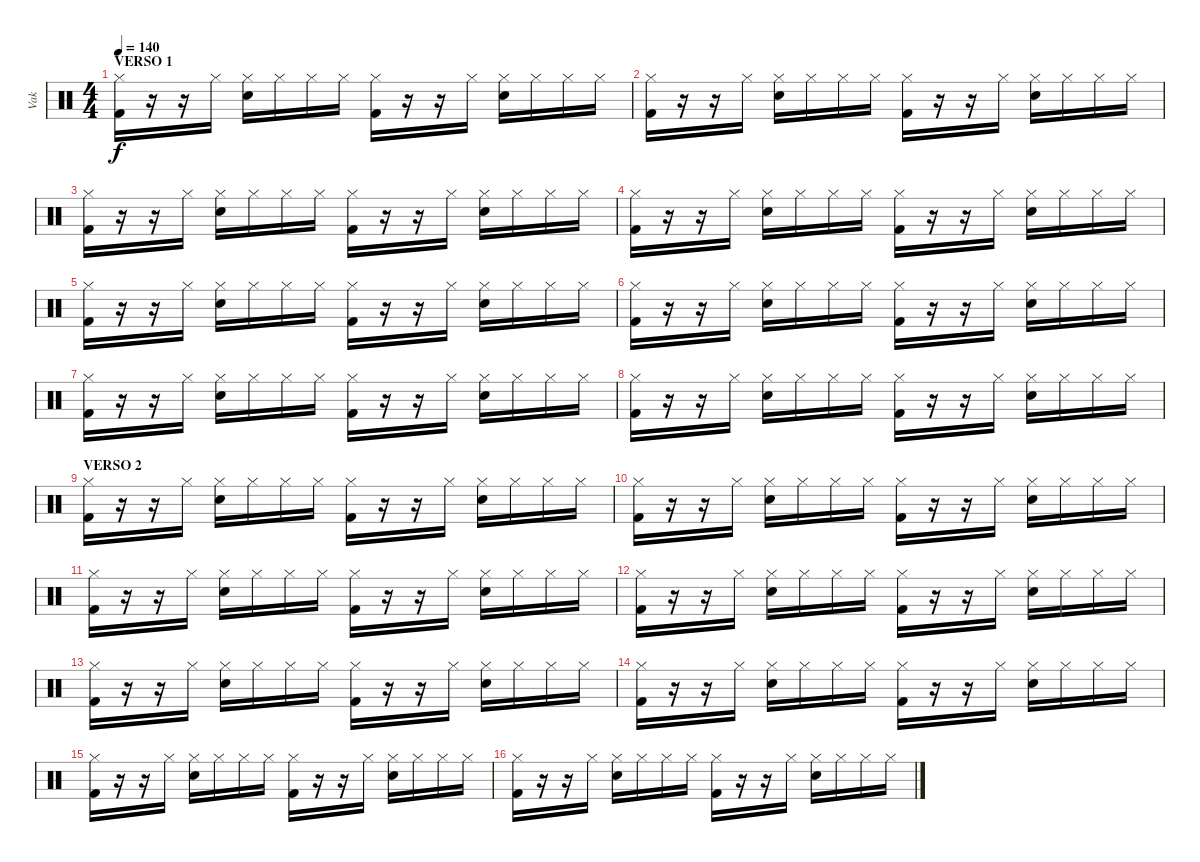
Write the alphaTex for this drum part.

\track ("Vak" "Vak") {instrument percussion}
\staff {score}
\articulation defaults
\ts (4 4)
\section ("" "VERSO 1")
\tempo 140
\clef neutral
\ks c
("Hi-Hat (closed)" "Kick (hit) 2").16{dy f} r.16 r.16 "Hi-Hat (closed)".16 ("Hi-Hat (closed)" "Snare (hit) 2").16 "Hi-Hat (closed)".16 "Hi-Hat (closed)".16 "Hi-Hat (closed)".16 ("Hi-Hat (closed)" "Kick (hit) 2").16 r.16 r.16 "Hi-Hat (closed)".16 ("Hi-Hat (closed)" "Snare (hit) 2").16 "Hi-Hat (closed)".16 "Hi-Hat (closed)".16 "Hi-Hat (closed)".16 |
("Hi-Hat (closed)" "Kick (hit) 2").16 r.16 r.16 "Hi-Hat (closed)".16 ("Hi-Hat (closed)" "Snare (hit) 2").16 "Hi-Hat (closed)".16 "Hi-Hat (closed)".16 "Hi-Hat (closed)".16 ("Hi-Hat (closed)" "Kick (hit) 2").16 r.16 r.16 "Hi-Hat (closed)".16 ("Hi-Hat (closed)" "Snare (hit) 2").16 "Hi-Hat (closed)".16 "Hi-Hat (closed)".16 "Hi-Hat (closed)".16 |
("Hi-Hat (closed)" "Kick (hit) 2").16 r.16 r.16 "Hi-Hat (closed)".16 ("Hi-Hat (closed)" "Snare (hit) 2").16 "Hi-Hat (closed)".16 "Hi-Hat (closed)".16 "Hi-Hat (closed)".16 ("Hi-Hat (closed)" "Kick (hit) 2").16 r.16 r.16 "Hi-Hat (closed)".16 ("Hi-Hat (closed)" "Snare (hit) 2").16 "Hi-Hat (closed)".16 "Hi-Hat (closed)".16 "Hi-Hat (closed)".16 |
("Hi-Hat (closed)" "Kick (hit) 2").16 r.16 r.16 "Hi-Hat (closed)".16 ("Hi-Hat (closed)" "Snare (hit) 2").16 "Hi-Hat (closed)".16 "Hi-Hat (closed)".16 "Hi-Hat (closed)".16 ("Hi-Hat (closed)" "Kick (hit) 2").16 r.16 r.16 "Hi-Hat (closed)".16 ("Hi-Hat (closed)" "Snare (hit) 2").16 "Hi-Hat (closed)".16 "Hi-Hat (closed)".16 "Hi-Hat (closed)".16 |
("Hi-Hat (closed)" "Kick (hit) 2").16 r.16 r.16 "Hi-Hat (closed)".16 ("Hi-Hat (closed)" "Snare (hit) 2").16 "Hi-Hat (closed)".16 "Hi-Hat (closed)".16 "Hi-Hat (closed)".16 ("Hi-Hat (closed)" "Kick (hit) 2").16 r.16 r.16 "Hi-Hat (closed)".16 ("Hi-Hat (closed)" "Snare (hit) 2").16 "Hi-Hat (closed)".16 "Hi-Hat (closed)".16 "Hi-Hat (closed)".16 |
("Hi-Hat (closed)" "Kick (hit) 2").16 r.16 r.16 "Hi-Hat (closed)".16 ("Hi-Hat (closed)" "Snare (hit) 2").16 "Hi-Hat (closed)".16 "Hi-Hat (closed)".16 "Hi-Hat (closed)".16 ("Hi-Hat (closed)" "Kick (hit) 2").16 r.16 r.16 "Hi-Hat (closed)".16 ("Hi-Hat (closed)" "Snare (hit) 2").16 "Hi-Hat (closed)".16 "Hi-Hat (closed)".16 "Hi-Hat (closed)".16 |
("Hi-Hat (closed)" "Kick (hit) 2").16 r.16 r.16 "Hi-Hat (closed)".16 ("Hi-Hat (closed)" "Snare (hit) 2").16 "Hi-Hat (closed)".16 "Hi-Hat (closed)".16 "Hi-Hat (closed)".16 ("Hi-Hat (closed)" "Kick (hit) 2").16 r.16 r.16 "Hi-Hat (closed)".16 ("Hi-Hat (closed)" "Snare (hit) 2").16 "Hi-Hat (closed)".16 "Hi-Hat (closed)".16 "Hi-Hat (closed)".16 |
("Hi-Hat (closed)" "Kick (hit) 2").16 r.16 r.16 "Hi-Hat (closed)".16 ("Hi-Hat (closed)" "Snare (hit) 2").16 "Hi-Hat (closed)".16 "Hi-Hat (closed)".16 "Hi-Hat (closed)".16 ("Hi-Hat (closed)" "Kick (hit) 2").16 r.16 r.16 "Hi-Hat (closed)".16 ("Hi-Hat (closed)" "Snare (hit) 2").16 "Hi-Hat (closed)".16 "Hi-Hat (closed)".16 "Hi-Hat (closed)".16 |
\section ("" "VERSO 2")
("Hi-Hat (closed)" "Kick (hit) 2").16 r.16 r.16 "Hi-Hat (closed)".16 ("Hi-Hat (closed)" "Snare (hit) 2").16 "Hi-Hat (closed)".16 "Hi-Hat (closed)".16 "Hi-Hat (closed)".16 ("Hi-Hat (closed)" "Kick (hit) 2").16 r.16 r.16 "Hi-Hat (closed)".16 ("Hi-Hat (closed)" "Snare (hit) 2").16 "Hi-Hat (closed)".16 "Hi-Hat (closed)".16 "Hi-Hat (closed)".16 |
("Hi-Hat (closed)" "Kick (hit) 2").16 r.16 r.16 "Hi-Hat (closed)".16 ("Hi-Hat (closed)" "Snare (hit) 2").16 "Hi-Hat (closed)".16 "Hi-Hat (closed)".16 "Hi-Hat (closed)".16 ("Hi-Hat (closed)" "Kick (hit) 2").16 r.16 r.16 "Hi-Hat (closed)".16 ("Hi-Hat (closed)" "Snare (hit) 2").16 "Hi-Hat (closed)".16 "Hi-Hat (closed)".16 "Hi-Hat (closed)".16 |
("Hi-Hat (closed)" "Kick (hit) 2").16 r.16 r.16 "Hi-Hat (closed)".16 ("Hi-Hat (closed)" "Snare (hit) 2").16 "Hi-Hat (closed)".16 "Hi-Hat (closed)".16 "Hi-Hat (closed)".16 ("Hi-Hat (closed)" "Kick (hit) 2").16 r.16 r.16 "Hi-Hat (closed)".16 ("Hi-Hat (closed)" "Snare (hit) 2").16 "Hi-Hat (closed)".16 "Hi-Hat (closed)".16 "Hi-Hat (closed)".16 |
("Hi-Hat (closed)" "Kick (hit) 2").16 r.16 r.16 "Hi-Hat (closed)".16 ("Hi-Hat (closed)" "Snare (hit) 2").16 "Hi-Hat (closed)".16 "Hi-Hat (closed)".16 "Hi-Hat (closed)".16 ("Hi-Hat (closed)" "Kick (hit) 2").16 r.16 r.16 "Hi-Hat (closed)".16 ("Hi-Hat (closed)" "Snare (hit) 2").16 "Hi-Hat (closed)".16 "Hi-Hat (closed)".16 "Hi-Hat (closed)".16 |
("Hi-Hat (closed)" "Kick (hit) 2").16 r.16 r.16 "Hi-Hat (closed)".16 ("Hi-Hat (closed)" "Snare (hit) 2").16 "Hi-Hat (closed)".16 "Hi-Hat (closed)".16 "Hi-Hat (closed)".16 ("Hi-Hat (closed)" "Kick (hit) 2").16 r.16 r.16 "Hi-Hat (closed)".16 ("Hi-Hat (closed)" "Snare (hit) 2").16 "Hi-Hat (closed)".16 "Hi-Hat (closed)".16 "Hi-Hat (closed)".16 |
("Hi-Hat (closed)" "Kick (hit) 2").16 r.16 r.16 "Hi-Hat (closed)".16 ("Hi-Hat (closed)" "Snare (hit) 2").16 "Hi-Hat (closed)".16 "Hi-Hat (closed)".16 "Hi-Hat (closed)".16 ("Hi-Hat (closed)" "Kick (hit) 2").16 r.16 r.16 "Hi-Hat (closed)".16 ("Hi-Hat (closed)" "Snare (hit) 2").16 "Hi-Hat (closed)".16 "Hi-Hat (closed)".16 "Hi-Hat (closed)".16 |
("Hi-Hat (closed)" "Kick (hit) 2").16 r.16 r.16 "Hi-Hat (closed)".16 ("Hi-Hat (closed)" "Snare (hit) 2").16 "Hi-Hat (closed)".16 "Hi-Hat (closed)".16 "Hi-Hat (closed)".16 ("Hi-Hat (closed)" "Kick (hit) 2").16 r.16 r.16 "Hi-Hat (closed)".16 ("Hi-Hat (closed)" "Snare (hit) 2").16 "Hi-Hat (closed)".16 "Hi-Hat (closed)".16 "Hi-Hat (closed)".16 |
("Hi-Hat (closed)" "Kick (hit) 2").16 r.16 r.16 "Hi-Hat (closed)".16 ("Hi-Hat (closed)" "Snare (hit) 2").16 "Hi-Hat (closed)".16 "Hi-Hat (closed)".16 "Hi-Hat (closed)".16 ("Hi-Hat (closed)" "Kick (hit) 2").16 r.16 r.16 "Hi-Hat (closed)".16 ("Hi-Hat (closed)" "Snare (hit) 2").16 "Hi-Hat (closed)".16 "Hi-Hat (closed)".16 "Hi-Hat (closed)".16
